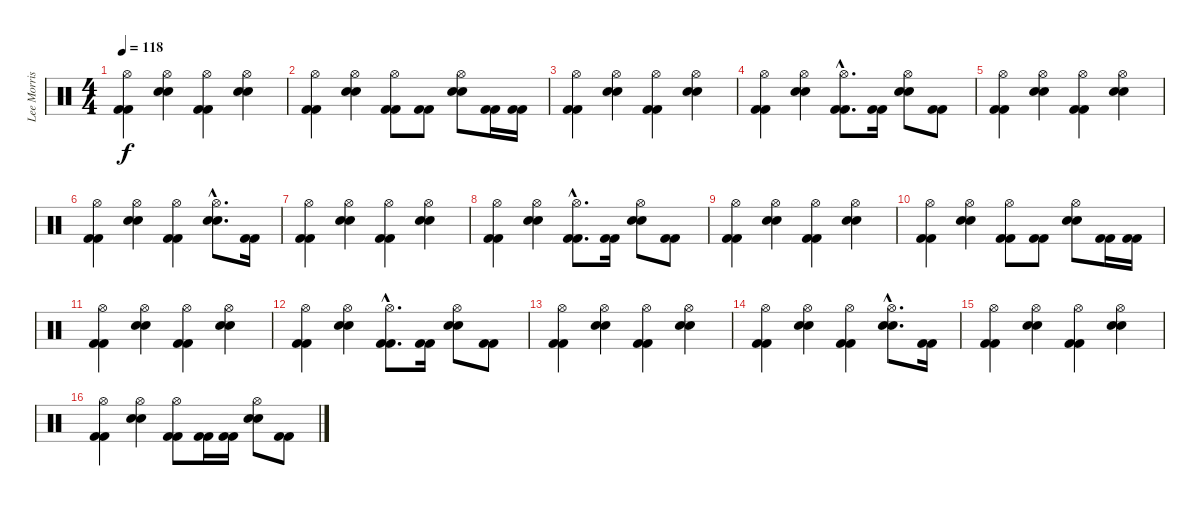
\track ("Lee Morris" "Lee Morris") {instrument percussion}
\staff {score}
\articulation defaults
\ts (4 4)
\tempo 118
\clef neutral
\ks c
("Hi-Hat (open)" "Kick (hit) 2" "Kick (hit) 2").4{dy f} ("Hi-Hat (open)" "Snare (hit) 2" "Snare (hit) 2").4 ("Hi-Hat (open)" "Kick (hit) 2" "Kick (hit) 2").4 ("Hi-Hat (open)" "Snare (hit) 2" "Snare (hit) 2").4 |
("Hi-Hat (open)" "Kick (hit) 2" "Kick (hit) 2").4 ("Hi-Hat (open)" "Snare (hit) 2" "Snare (hit) 2").4 ("Hi-Hat (open)" "Kick (hit) 2" "Kick (hit) 2").8 ("Kick (hit) 2" "Kick (hit) 2").8 ("Hi-Hat (open)" "Snare (hit) 2" "Snare (hit) 2").8 ("Kick (hit) 2" "Kick (hit) 2").16 ("Kick (hit) 2" "Kick (hit) 2").16 |
("Hi-Hat (open)" "Kick (hit) 2" "Kick (hit) 2").4 ("Hi-Hat (open)" "Snare (hit) 2" "Snare (hit) 2").4 ("Hi-Hat (open)" "Kick (hit) 2" "Kick (hit) 2").4 ("Hi-Hat (open)" "Snare (hit) 2" "Snare (hit) 2").4 |
("Hi-Hat (open)" "Kick (hit) 2" "Kick (hit) 2").4 ("Hi-Hat (open)" "Snare (hit) 2" "Snare (hit) 2").4 ("Hi-Hat (open)"{hac} "Kick (hit) 2"{hac} "Kick (hit) 2"{hac}).8{d} ("Kick (hit) 2" "Kick (hit) 2").16 ("Hi-Hat (open)" "Snare (hit) 2" "Snare (hit) 2").8 ("Kick (hit) 2" "Kick (hit) 2").8 |
("Hi-Hat (open)" "Kick (hit) 2" "Kick (hit) 2").4 ("Hi-Hat (open)" "Snare (hit) 2" "Snare (hit) 2").4 ("Hi-Hat (open)" "Kick (hit) 2" "Kick (hit) 2").4 ("Hi-Hat (open)" "Snare (hit) 2" "Snare (hit) 2").4 |
("Hi-Hat (open)" "Kick (hit) 2" "Kick (hit) 2").4 ("Hi-Hat (open)" "Snare (hit) 2" "Snare (hit) 2").4 ("Hi-Hat (open)" "Kick (hit) 2" "Kick (hit) 2").4 ("Hi-Hat (open)"{hac} "Snare (hit) 2"{hac} "Snare (hit) 2"{hac}).8{d} ("Kick (hit) 2" "Kick (hit) 2").16 |
("Hi-Hat (open)" "Kick (hit) 2" "Kick (hit) 2").4 ("Hi-Hat (open)" "Snare (hit) 2" "Snare (hit) 2").4 ("Hi-Hat (open)" "Kick (hit) 2" "Kick (hit) 2").4 ("Hi-Hat (open)" "Snare (hit) 2" "Snare (hit) 2").4 |
("Hi-Hat (open)" "Kick (hit) 2" "Kick (hit) 2").4 ("Hi-Hat (open)" "Snare (hit) 2" "Snare (hit) 2").4 ("Hi-Hat (open)"{hac} "Kick (hit) 2"{hac} "Kick (hit) 2"{hac}).8{d} ("Kick (hit) 2" "Kick (hit) 2").16 ("Hi-Hat (open)" "Snare (hit) 2" "Snare (hit) 2").8 ("Kick (hit) 2" "Kick (hit) 2").8 |
("Hi-Hat (open)" "Kick (hit) 2" "Kick (hit) 2").4 ("Hi-Hat (open)" "Snare (hit) 2" "Snare (hit) 2").4 ("Hi-Hat (open)" "Kick (hit) 2" "Kick (hit) 2").4 ("Hi-Hat (open)" "Snare (hit) 2" "Snare (hit) 2").4 |
("Hi-Hat (open)" "Kick (hit) 2" "Kick (hit) 2").4 ("Hi-Hat (open)" "Snare (hit) 2" "Snare (hit) 2").4 ("Hi-Hat (open)" "Kick (hit) 2" "Kick (hit) 2").8 ("Kick (hit) 2" "Kick (hit) 2").8 ("Hi-Hat (open)" "Snare (hit) 2" "Snare (hit) 2").8 ("Kick (hit) 2" "Kick (hit) 2").16 ("Kick (hit) 2" "Kick (hit) 2").16 |
("Hi-Hat (open)" "Kick (hit) 2" "Kick (hit) 2").4 ("Hi-Hat (open)" "Snare (hit) 2" "Snare (hit) 2").4 ("Hi-Hat (open)" "Kick (hit) 2" "Kick (hit) 2").4 ("Hi-Hat (open)" "Snare (hit) 2" "Snare (hit) 2").4 |
("Hi-Hat (open)" "Kick (hit) 2" "Kick (hit) 2").4 ("Hi-Hat (open)" "Snare (hit) 2" "Snare (hit) 2").4 ("Hi-Hat (open)"{hac} "Kick (hit) 2"{hac} "Kick (hit) 2"{hac}).8{d} ("Kick (hit) 2" "Kick (hit) 2").16 ("Hi-Hat (open)" "Snare (hit) 2" "Snare (hit) 2").8 ("Kick (hit) 2" "Kick (hit) 2").8 |
("Hi-Hat (open)" "Kick (hit) 2" "Kick (hit) 2").4 ("Hi-Hat (open)" "Snare (hit) 2" "Snare (hit) 2").4 ("Hi-Hat (open)" "Kick (hit) 2" "Kick (hit) 2").4 ("Hi-Hat (open)" "Snare (hit) 2" "Snare (hit) 2").4 |
("Hi-Hat (open)" "Kick (hit) 2" "Kick (hit) 2").4 ("Hi-Hat (open)" "Snare (hit) 2" "Snare (hit) 2").4 ("Hi-Hat (open)" "Kick (hit) 2" "Kick (hit) 2").4 ("Hi-Hat (open)"{hac} "Snare (hit) 2"{hac} "Snare (hit) 2"{hac}).8{d} ("Kick (hit) 2" "Kick (hit) 2").16 |
("Hi-Hat (open)" "Kick (hit) 2" "Kick (hit) 2").4 ("Hi-Hat (open)" "Snare (hit) 2" "Snare (hit) 2").4 ("Hi-Hat (open)" "Kick (hit) 2" "Kick (hit) 2").4 ("Hi-Hat (open)" "Snare (hit) 2" "Snare (hit) 2").4 |
("Hi-Hat (open)" "Kick (hit) 2" "Kick (hit) 2").4 ("Hi-Hat (open)" "Snare (hit) 2" "Snare (hit) 2").4 ("Hi-Hat (open)" "Kick (hit) 2" "Kick (hit) 2").8 ("Kick (hit) 2" "Kick (hit) 2").16 ("Kick (hit) 2" "Kick (hit) 2").16 ("Hi-Hat (open)" "Snare (hit) 2" "Snare (hit) 2").8 ("Kick (hit) 2" "Kick (hit) 2").8
